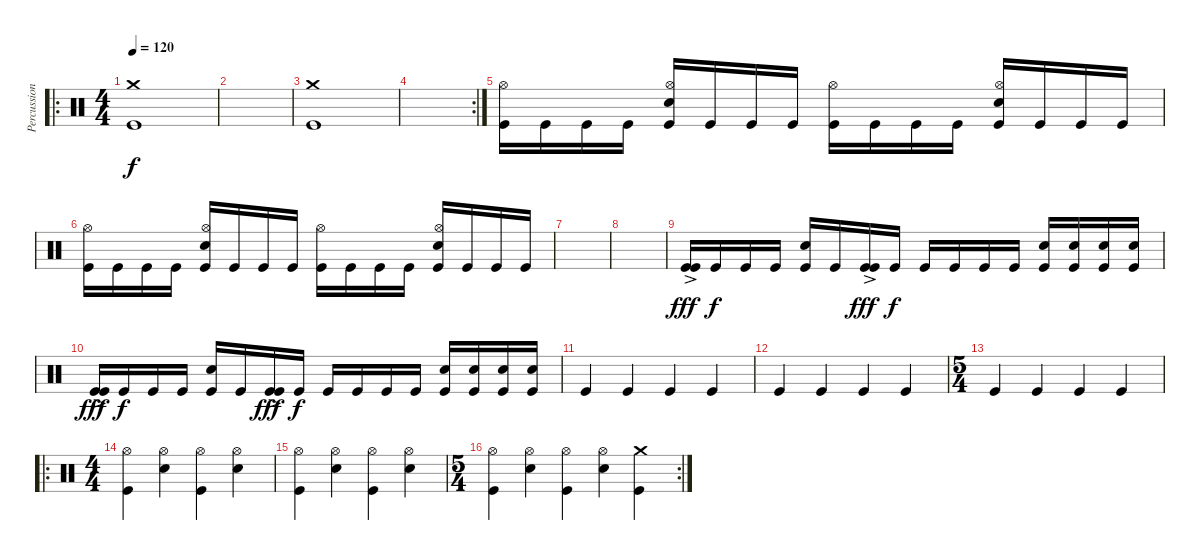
\track ("Percussion" "Percussion") {instrument percussion}
\staff {score}
\articulation defaults
\ro
\ts (4 4)
\tempo 120
\clef neutral
\ks c
("Crash medium (hit)" "Kick (hit)").1{dy f} |
|
("Crash medium (hit)" "Kick (hit)").1 |
\rc 2
|
("Hi-Hat (open)" "Kick (hit)").16 "Kick (hit)".16 "Kick (hit)".16 "Kick (hit)".16 ("Hi-Hat (open)" "Snare (hit) 2" "Kick (hit)").16 "Kick (hit)".16 "Kick (hit)".16 "Kick (hit)".16 ("Hi-Hat (open)" "Kick (hit)").16 "Kick (hit)".16 "Kick (hit)".16 "Kick (hit)".16 ("Hi-Hat (open)" "Snare (hit) 2" "Kick (hit)").16 "Kick (hit)".16 "Kick (hit)".16 "Kick (hit)".16 |
("Hi-Hat (open)" "Kick (hit)").16 "Kick (hit)".16 "Kick (hit)".16 "Kick (hit)".16 ("Hi-Hat (open)" "Snare (hit) 2" "Kick (hit)").16 "Kick (hit)".16 "Kick (hit)".16 "Kick (hit)".16 ("Hi-Hat (open)" "Kick (hit)").16 "Kick (hit)".16 "Kick (hit)".16 "Kick (hit)".16 ("Hi-Hat (open)" "Snare (hit) 2" "Kick (hit)").16 "Kick (hit)".16 "Kick (hit)".16 "Kick (hit)".16 |
|
|
("Kick (hit)"{ac} "Kick (hit)").16{dy fff} "Kick (hit)".16{dy f} "Kick (hit)".16 "Kick (hit)".16 ("Snare (hit) 2" "Kick (hit)").16 "Kick (hit)".16 ("Kick (hit)"{ac} "Kick (hit)").16{dy fff} "Kick (hit)".16{dy f} "Kick (hit)".16 "Kick (hit)".16 "Kick (hit)".16 "Kick (hit)".16 ("Snare (hit) 2" "Kick (hit)").16 ("Snare (hit) 2" "Kick (hit)").16 ("Snare (hit) 2" "Kick (hit)").16 ("Snare (hit) 2" "Kick (hit)").16 |
("Kick (hit)"{ac} "Kick (hit)").16{dy fff} "Kick (hit)".16{dy f} "Kick (hit)".16 "Kick (hit)".16 ("Snare (hit) 2" "Kick (hit)").16 "Kick (hit)".16 ("Kick (hit)"{ac} "Kick (hit)").16{dy fff} "Kick (hit)".16{dy f} "Kick (hit)".16 "Kick (hit)".16 "Kick (hit)".16 "Kick (hit)".16 ("Snare (hit) 2" "Kick (hit)").16 ("Snare (hit) 2" "Kick (hit)").16 ("Snare (hit) 2" "Kick (hit)").16 ("Snare (hit) 2" "Kick (hit)").16 |
"Kick (hit)".4 "Kick (hit)".4 "Kick (hit)".4 "Kick (hit)".4 |
"Kick (hit)".4 "Kick (hit)".4 "Kick (hit)".4 "Kick (hit)".4 |
\ts (5 4)
"Kick (hit)".4 "Kick (hit)".4 "Kick (hit)".4 "Kick (hit)".4 |
\ro
\ts (4 4)
("Hi-Hat (open)" "Kick (hit)").4 ("Hi-Hat (open)" "Snare (hit) 2").4 ("Hi-Hat (open)" "Kick (hit)").4 ("Hi-Hat (open)" "Snare (hit) 2").4 |
("Hi-Hat (open)" "Kick (hit)").4 ("Hi-Hat (open)" "Snare (hit) 2").4 ("Hi-Hat (open)" "Kick (hit)").4 ("Hi-Hat (open)" "Snare (hit) 2").4 |
\rc 2
\ts (5 4)
("Hi-Hat (open)" "Kick (hit)").4 ("Hi-Hat (open)" "Snare (hit) 2").4 ("Hi-Hat (open)" "Kick (hit)").4 ("Hi-Hat (open)" "Snare (hit) 2").4 ("Crash medium (hit)" "Kick (hit)").4
